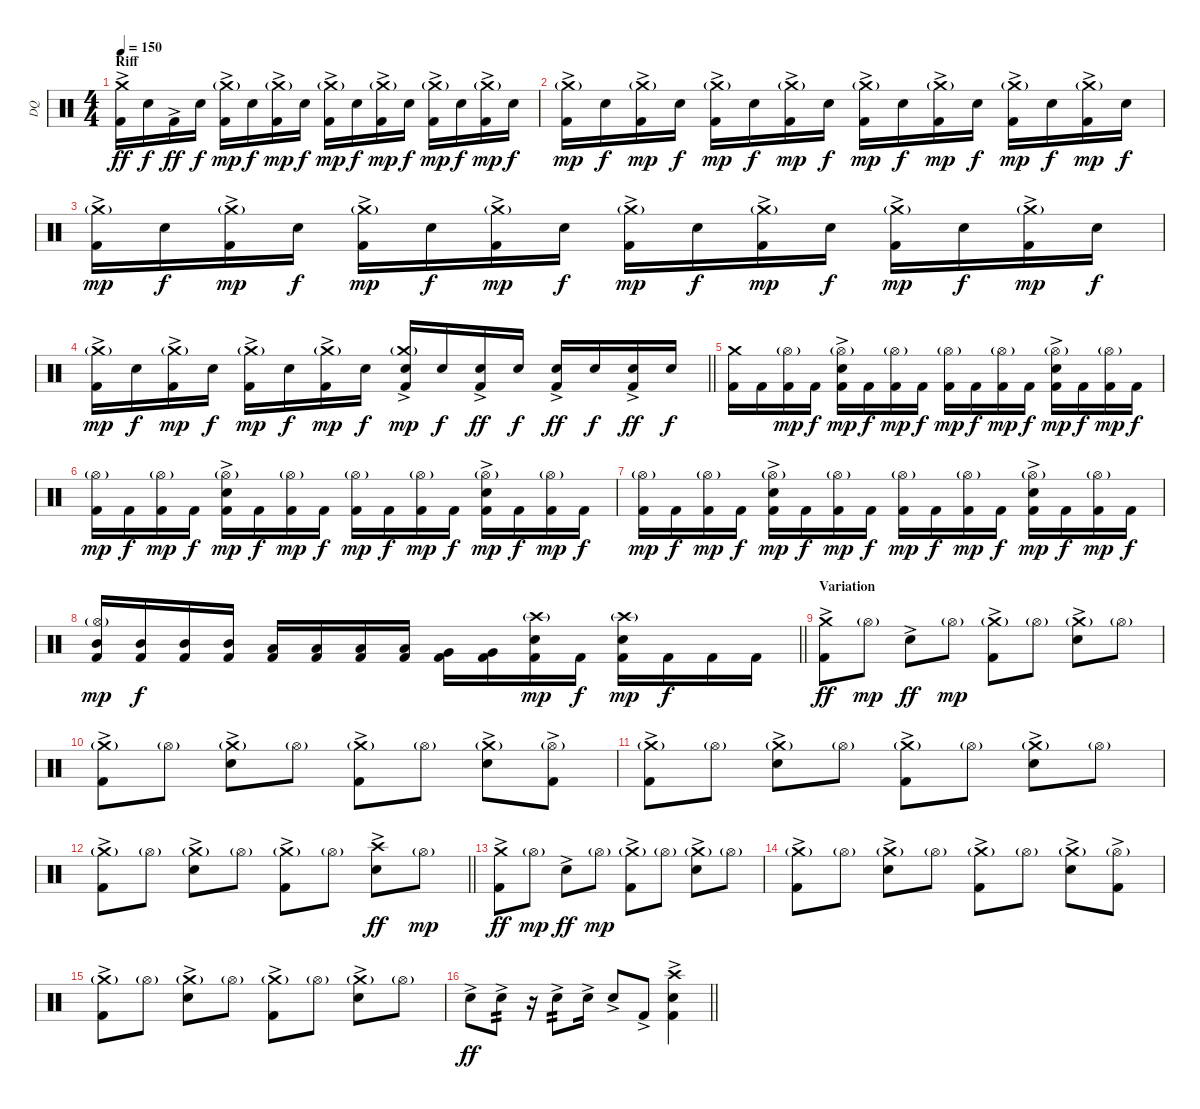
\track ("DQ" "DQ") {instrument percussion}
\staff {score}
\articulation defaults
\ts (4 4)
\section ("" "Riff")
\tempo 150
\clef neutral
\ks c
("Kick (hit) 2"{ac} "Crash medium (hit)").16{dy ff volume 13} "Snare (hit) 2".16{dy f} "Kick (hit) 2"{ac}.16{dy ff} "Snare (hit) 2".16{dy f} ("Kick (hit) 2"{ac} "Crash medium (hit)"{g}).16{dy mp} "Snare (hit) 2".16{dy f} ("Kick (hit) 2"{ac} "Crash medium (hit)"{g}).16{dy mp} "Snare (hit) 2".16{dy f} ("Kick (hit) 2"{ac} "Crash medium (hit)"{g}).16{dy mp} "Snare (hit) 2".16{dy f} ("Kick (hit) 2"{ac} "Crash medium (hit)"{g}).16{dy mp} "Snare (hit) 2".16{dy f} ("Kick (hit) 2"{ac} "Crash medium (hit)"{g}).16{dy mp} "Snare (hit) 2".16{dy f} ("Kick (hit) 2"{ac} "Crash medium (hit)"{g}).16{dy mp} "Snare (hit) 2".16{dy f} |
("Kick (hit) 2"{ac} "Crash medium (hit)"{g}).16{dy mp} "Snare (hit) 2".16{dy f} ("Kick (hit) 2"{ac} "Crash medium (hit)"{g}).16{dy mp} "Snare (hit) 2".16{dy f} ("Kick (hit) 2"{ac} "Crash medium (hit)"{g}).16{dy mp} "Snare (hit) 2".16{dy f} ("Kick (hit) 2"{ac} "Crash medium (hit)"{g}).16{dy mp} "Snare (hit) 2".16{dy f} ("Kick (hit) 2"{ac} "Crash medium (hit)"{g}).16{dy mp} "Snare (hit) 2".16{dy f} ("Kick (hit) 2"{ac} "Crash medium (hit)"{g}).16{dy mp} "Snare (hit) 2".16{dy f} ("Kick (hit) 2"{ac} "Crash medium (hit)"{g}).16{dy mp} "Snare (hit) 2".16{dy f} ("Kick (hit) 2"{ac} "Crash medium (hit)"{g}).16{dy mp} "Snare (hit) 2".16{dy f} |
("Kick (hit) 2"{ac} "Crash medium (hit)"{g}).16{dy mp} "Snare (hit) 2".16{dy f} ("Kick (hit) 2"{ac} "Crash medium (hit)"{g}).16{dy mp} "Snare (hit) 2".16{dy f} ("Kick (hit) 2"{ac} "Crash medium (hit)"{g}).16{dy mp} "Snare (hit) 2".16{dy f} ("Kick (hit) 2"{ac} "Crash medium (hit)"{g}).16{dy mp} "Snare (hit) 2".16{dy f} ("Kick (hit) 2"{ac} "Crash medium (hit)"{g}).16{dy mp} "Snare (hit) 2".16{dy f} ("Kick (hit) 2"{ac} "Crash medium (hit)"{g}).16{dy mp} "Snare (hit) 2".16{dy f} ("Kick (hit) 2"{ac} "Crash medium (hit)"{g}).16{dy mp} "Snare (hit) 2".16{dy f} ("Kick (hit) 2"{ac} "Crash medium (hit)"{g}).16{dy mp} "Snare (hit) 2".16{dy f} |
\barLineRight lightlight
("Kick (hit) 2"{ac} "Crash medium (hit)"{g}).16{dy mp} "Snare (hit) 2".16{dy f} ("Kick (hit) 2"{ac} "Crash medium (hit)"{g}).16{dy mp} "Snare (hit) 2".16{dy f} ("Kick (hit) 2"{ac} "Crash medium (hit)"{g}).16{dy mp} "Snare (hit) 2".16{dy f} ("Kick (hit) 2"{ac} "Crash medium (hit)"{g}).16{dy mp} "Snare (hit) 2".16{dy f} ("Kick (hit) 2"{ac} "Snare (hit) 2" "Crash medium (hit)"{g}).16{dy mp} "Snare (hit) 2".16{dy f} ("Kick (hit) 2"{ac} "Snare (hit) 2").16{dy ff} "Snare (hit) 2".16{dy f} ("Kick (hit) 2"{ac} "Snare (hit) 2").16{dy ff} "Snare (hit) 2".16{dy f} ("Kick (hit) 2"{ac} "Snare (hit) 2").16{dy ff} "Snare (hit) 2".16{dy f} |
\section ("" "")
("Kick (hit) 2" "Crash medium (hit)").16 "Kick (hit) 2".16 ("Kick (hit) 2" "Hi-Hat (open)"{g}).16{dy mp} "Kick (hit) 2".16{dy f} ("Kick (hit) 2" "Snare (hit) 2"{ac} "Hi-Hat (open)"{g}).16{dy mp} "Kick (hit) 2".16{dy f} ("Kick (hit) 2" "Hi-Hat (open)"{g}).16{dy mp} "Kick (hit) 2".16{dy f} ("Kick (hit) 2" "Hi-Hat (open)"{g}).16{dy mp} "Kick (hit) 2".16{dy f} ("Kick (hit) 2" "Hi-Hat (open)"{g}).16{dy mp} "Kick (hit) 2".16{dy f} ("Kick (hit) 2" "Snare (hit) 2"{ac} "Hi-Hat (open)"{g}).16{dy mp} "Kick (hit) 2".16{dy f} ("Kick (hit) 2" "Hi-Hat (open)"{g}).16{dy mp} "Kick (hit) 2".16{dy f} |
("Kick (hit) 2" "Hi-Hat (open)"{g}).16{dy mp} "Kick (hit) 2".16{dy f} ("Kick (hit) 2" "Hi-Hat (open)"{g}).16{dy mp} "Kick (hit) 2".16{dy f} ("Kick (hit) 2" "Snare (hit) 2"{ac} "Hi-Hat (open)"{g}).16{dy mp} "Kick (hit) 2".16{dy f} ("Kick (hit) 2" "Hi-Hat (open)"{g}).16{dy mp} "Kick (hit) 2".16{dy f} ("Kick (hit) 2" "Hi-Hat (open)"{g}).16{dy mp} "Kick (hit) 2".16{dy f} ("Kick (hit) 2" "Hi-Hat (open)"{g}).16{dy mp} "Kick (hit) 2".16{dy f} ("Kick (hit) 2" "Snare (hit) 2"{ac} "Hi-Hat (open)"{g}).16{dy mp} "Kick (hit) 2".16{dy f} ("Kick (hit) 2" "Hi-Hat (open)"{g}).16{dy mp} "Kick (hit) 2".16{dy f} |
("Kick (hit) 2" "Hi-Hat (open)"{g}).16{dy mp} "Kick (hit) 2".16{dy f} ("Kick (hit) 2" "Hi-Hat (open)"{g}).16{dy mp} "Kick (hit) 2".16{dy f} ("Kick (hit) 2" "Snare (hit) 2"{ac} "Hi-Hat (open)"{g}).16{dy mp} "Kick (hit) 2".16{dy f} ("Kick (hit) 2" "Hi-Hat (open)"{g}).16{dy mp} "Kick (hit) 2".16{dy f} ("Kick (hit) 2" "Hi-Hat (open)"{g}).16{dy mp} "Kick (hit) 2".16{dy f} ("Kick (hit) 2" "Hi-Hat (open)"{g}).16{dy mp} "Kick (hit) 2".16{dy f} ("Kick (hit) 2" "Snare (hit) 2"{ac} "Hi-Hat (open)"{g}).16{dy mp} "Kick (hit) 2".16{dy f} ("Kick (hit) 2" "Hi-Hat (open)"{g}).16{dy mp} "Kick (hit) 2".16{dy f} |
\barLineRight lightlight
("Kick (hit) 2" "Mid Tom (hit)" "Hi-Hat (open)"{g}).16{dy mp} ("Kick (hit) 2" "Mid Tom (hit)").16{dy f} ("Kick (hit) 2" "Mid Tom (hit)").16 ("Kick (hit) 2" "Mid Tom (hit)").16 ("Kick (hit) 2" "Low Tom (hit)").16 ("Kick (hit) 2" "Low Tom (hit)").16 ("Kick (hit) 2" "Low Tom (hit)").16 ("Kick (hit) 2" "Low Tom (hit)").16 ("Kick (hit) 2" "Very Low Tom (hit)").16 ("Kick (hit) 2" "Very Low Tom (hit)").16 ("Kick (hit) 2" "Snare (hit) 2" "Crash high (hit)"{g}).16{dy mp} "Kick (hit) 2".16{dy f} ("Kick (hit) 2" "Snare (hit) 2" "Crash high (hit)"{g}).16{dy mp} "Kick (hit) 2".16{dy f} "Kick (hit) 2".16 "Kick (hit) 2".16 |
\section ("" "Variation")
("Kick (hit) 2"{ac} "Crash medium (hit)").8{dy ff} "Hi-Hat (open)"{g}.8{dy mp} "Snare (hit) 2"{ac}.8{dy ff} "Hi-Hat (open)"{g}.8{dy mp} ("Kick (hit) 2"{ac} "Crash medium (hit)"{g}).8 "Hi-Hat (open)"{g}.8 ("Snare (hit) 2"{ac} "Crash medium (hit)"{g}).8 "Hi-Hat (open)"{g}.8 |
("Kick (hit) 2"{ac} "Crash medium (hit)"{g}).8 "Hi-Hat (open)"{g}.8 ("Snare (hit) 2"{ac} "Crash medium (hit)"{g}).8 "Hi-Hat (open)"{g}.8 ("Kick (hit) 2"{ac} "Crash medium (hit)"{g}).8 "Hi-Hat (open)"{g}.8 ("Snare (hit) 2"{ac} "Crash medium (hit)"{g}).8 ("Kick (hit) 2"{ac} "Hi-Hat (open)"{g}).8 |
("Kick (hit) 2"{ac} "Crash medium (hit)"{g}).8 "Hi-Hat (open)"{g}.8 ("Snare (hit) 2"{ac} "Crash medium (hit)"{g}).8 "Hi-Hat (open)"{g}.8 ("Kick (hit) 2"{ac} "Crash medium (hit)"{g}).8 "Hi-Hat (open)"{g}.8 ("Snare (hit) 2"{ac} "Crash medium (hit)"{g}).8 "Hi-Hat (open)"{g}.8 |
\barLineRight lightlight
("Kick (hit) 2"{ac} "Crash medium (hit)"{g}).8 "Hi-Hat (open)"{g}.8 ("Snare (hit) 2"{ac} "Crash medium (hit)"{g}).8 "Hi-Hat (open)"{g}.8 ("Kick (hit) 2"{ac} "Crash medium (hit)"{g}).8 "Hi-Hat (open)"{g}.8 ("Snare (hit) 2"{ac} "Crash high (hit)").8{dy ff} "Hi-Hat (open)"{g}.8{dy mp} |
\section ("" "")
("Kick (hit) 2"{ac} "Crash medium (hit)").8{dy ff} "Hi-Hat (open)"{g}.8{dy mp} "Snare (hit) 2"{ac}.8{dy ff} "Hi-Hat (open)"{g}.8{dy mp} ("Kick (hit) 2"{ac} "Crash medium (hit)"{g}).8 "Hi-Hat (open)"{g}.8 ("Snare (hit) 2"{ac} "Crash medium (hit)"{g}).8 "Hi-Hat (open)"{g}.8 |
("Kick (hit) 2"{ac} "Crash medium (hit)"{g}).8 "Hi-Hat (open)"{g}.8 ("Snare (hit) 2"{ac} "Crash medium (hit)"{g}).8 "Hi-Hat (open)"{g}.8 ("Kick (hit) 2"{ac} "Crash medium (hit)"{g}).8 "Hi-Hat (open)"{g}.8 ("Snare (hit) 2"{ac} "Crash medium (hit)"{g}).8 ("Kick (hit) 2"{ac} "Hi-Hat (open)"{g}).8 |
("Kick (hit) 2"{ac} "Crash medium (hit)"{g}).8 "Hi-Hat (open)"{g}.8 ("Snare (hit) 2"{ac} "Crash medium (hit)"{g}).8 "Hi-Hat (open)"{g}.8 ("Kick (hit) 2"{ac} "Crash medium (hit)"{g}).8 "Hi-Hat (open)"{g}.8 ("Snare (hit) 2"{ac} "Crash medium (hit)"{g}).8 "Hi-Hat (open)"{g}.8 |
\barLineRight lightlight "Snare (hit) 2"{ac}.8{dy ff} "Snare (hit) 2"{ac}.8{tp 2}
r.16 "Snare (hit) 2"{ac}.8{tp 2} "Snare (hit) 2"{ac}.16 "Snare (hit) 2"{ac}.8 "Kick (hit) 2"{ac}.8 ("Kick (hit) 2"{ac} "Snare (hit) 2"{ac} "Crash high (hit)").4
